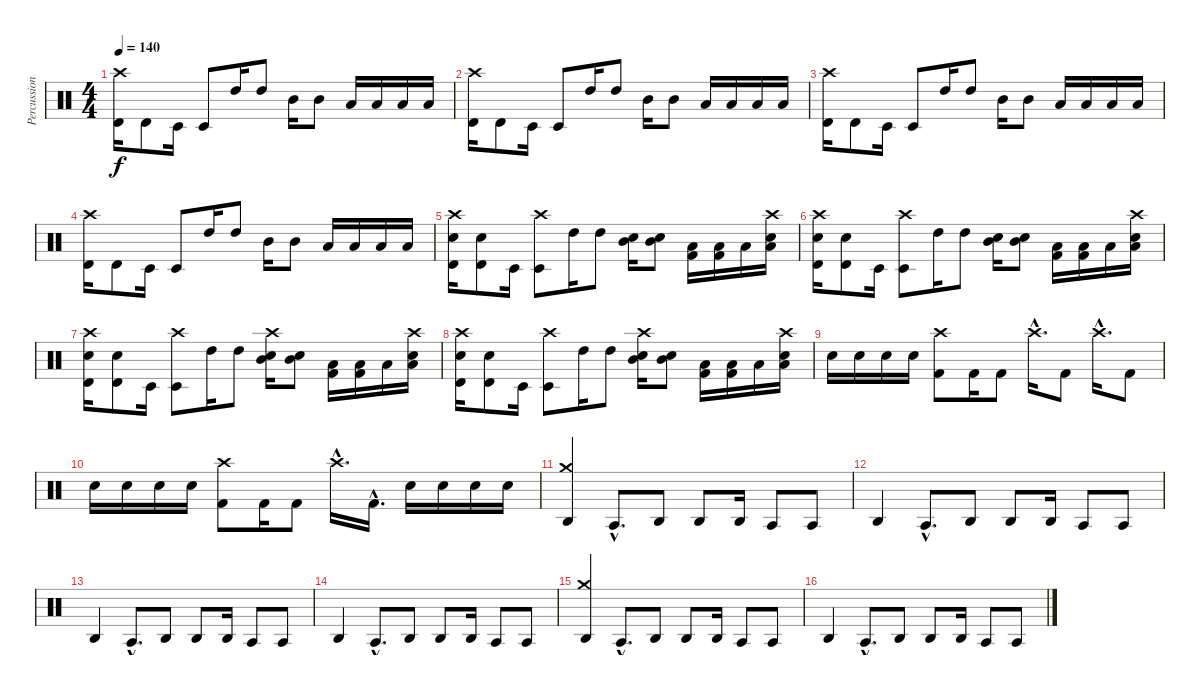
\track ("Percussion" "Percussion") {instrument percussion}
\staff {score}
\articulation defaults
\ts (4 4)
\tempo 140
\clef neutral
\ks c
("Crash high (hit)" "Timbale high (hit)").16{dy f} "Timbale high (hit)".8 "Timbale low (hit)".16 "Timbale low (hit)".8 "High Tom (hit)".16 "High Tom (hit)".8 "Mid Tom (hit)".16 "Mid Tom (hit)".8 "Low Tom (hit)".16 "Low Tom (hit)".16 "Low Tom (hit)".16 "Low Tom (hit)".16 |
("Crash high (hit)" "Timbale high (hit)").16 "Timbale high (hit)".8 "Timbale low (hit)".16 "Timbale low (hit)".8 "High Tom (hit)".16 "High Tom (hit)".8 "Mid Tom (hit)".16 "Mid Tom (hit)".8 "Low Tom (hit)".16 "Low Tom (hit)".16 "Low Tom (hit)".16 "Low Tom (hit)".16 |
("Crash high (hit)" "Timbale high (hit)").16 "Timbale high (hit)".8 "Timbale low (hit)".16 "Timbale low (hit)".8 "High Tom (hit)".16 "High Tom (hit)".8 "Mid Tom (hit)".16 "Mid Tom (hit)".8 "Low Tom (hit)".16 "Low Tom (hit)".16 "Low Tom (hit)".16 "Low Tom (hit)".16 |
("Crash high (hit)" "Timbale high (hit)").16 "Timbale high (hit)".8 "Timbale low (hit)".16 "Timbale low (hit)".8 "High Tom (hit)".16 "High Tom (hit)".8 "Mid Tom (hit)".16 "Mid Tom (hit)".8 "Low Tom (hit)".16 "Low Tom (hit)".16 "Low Tom (hit)".16 "Low Tom (hit)".16 |
("Crash high (hit)" "Timbale high (hit)" "Electric Snare (hit)").16 ("Timbale high (hit)" "Electric Snare (hit)").8 "Timbale low (hit)".16 ("Crash high (hit)" "Timbale low (hit)").8 "High Tom (hit)".16 "High Tom (hit)".8 ("Mid Tom (hit)" "Electric Snare (hit)").16 ("Mid Tom (hit)" "Electric Snare (hit)").8 ("Low Tom (hit)" "Kick (hit) 2").16 ("Low Tom (hit)" "Kick (hit) 2").16 "Low Tom (hit)".16 ("Crash high (hit)" "Low Tom (hit)" "Electric Snare (hit)").16 |
("Crash high (hit)" "Timbale high (hit)" "Electric Snare (hit)").16 ("Timbale high (hit)" "Electric Snare (hit)").8 "Timbale low (hit)".16 ("Crash high (hit)" "Timbale low (hit)").8 "High Tom (hit)".16 "High Tom (hit)".8 ("Mid Tom (hit)" "Electric Snare (hit)").16 ("Mid Tom (hit)" "Electric Snare (hit)").8 ("Low Tom (hit)" "Kick (hit) 2").16 ("Low Tom (hit)" "Kick (hit) 2").16 "Low Tom (hit)".16 ("Crash high (hit)" "Low Tom (hit)" "Electric Snare (hit)").16 |
("Crash high (hit)" "Timbale high (hit)" "Electric Snare (hit)").16 ("Timbale high (hit)" "Electric Snare (hit)").8 "Timbale low (hit)".16 ("Crash high (hit)" "Timbale low (hit)").8 "High Tom (hit)".16 "High Tom (hit)".8 ("Crash high (hit)" "Mid Tom (hit)" "Electric Snare (hit)").16 ("Mid Tom (hit)" "Electric Snare (hit)").8 ("Low Tom (hit)" "Kick (hit) 2").16 ("Low Tom (hit)" "Kick (hit) 2").16 "Low Tom (hit)".16 ("Crash high (hit)" "Low Tom (hit)" "Electric Snare (hit)").16 |
("Crash high (hit)" "Timbale high (hit)" "Electric Snare (hit)").16 ("Timbale high (hit)" "Electric Snare (hit)").8 "Timbale low (hit)".16 ("Crash high (hit)" "Timbale low (hit)").8 "High Tom (hit)".16 "High Tom (hit)".8 ("Crash high (hit)" "Mid Tom (hit)" "Electric Snare (hit)").16 ("Mid Tom (hit)" "Electric Snare (hit)").8 ("Low Tom (hit)" "Kick (hit) 2").16 ("Low Tom (hit)" "Kick (hit) 2").16 "Low Tom (hit)".16 ("Crash high (hit)" "Low Tom (hit)" "Electric Snare (hit)").16 |
"Electric Snare (hit)".16 "Electric Snare (hit)".16 "Electric Snare (hit)".16 "Electric Snare (hit)".16 ("Crash high (hit)" "Kick (hit) 2").8 "Kick (hit) 2".16 "Kick (hit) 2".8 "Crash high (hit)"{hac}.16{d} "Kick (hit) 2".8 "Crash high (hit)"{hac}.16{d} "Kick (hit) 2".8 |
"Electric Snare (hit)".16 "Electric Snare (hit)".16 "Electric Snare (hit)".16 "Electric Snare (hit)".16 ("Crash high (hit)" "Kick (hit) 2").8 "Kick (hit) 2".16 "Kick (hit) 2".8 "Crash high (hit)"{hac}.16{d} "Kick (hit) 2"{hac}.16{d} "Electric Snare (hit)".16 "Electric Snare (hit)".16 "Electric Snare (hit)".16 "Electric Snare (hit)".16 |
("Crash medium (hit)" "Agogo high (hit)").4 "Agogo tow (hit)"{hac}.8{d} "Agogo high (hit)".8 "Agogo high (hit)".8 "Agogo high (hit)".16 "Agogo tow (hit)".8 "Agogo tow (hit)".8 |
"Agogo high (hit)".4 "Agogo tow (hit)"{hac}.8{d} "Agogo high (hit)".8 "Agogo high (hit)".8 "Agogo high (hit)".16 "Agogo tow (hit)".8 "Agogo tow (hit)".8 |
"Agogo high (hit)".4 "Agogo tow (hit)"{hac}.8{d} "Agogo high (hit)".8 "Agogo high (hit)".8 "Agogo high (hit)".16 "Agogo tow (hit)".8 "Agogo tow (hit)".8 |
"Agogo high (hit)".4 "Agogo tow (hit)"{hac}.8{d} "Agogo high (hit)".8 "Agogo high (hit)".8 "Agogo high (hit)".16 "Agogo tow (hit)".8 "Agogo tow (hit)".8 |
("Crash medium (hit)" "Agogo high (hit)").4 "Agogo tow (hit)"{hac}.8{d} "Agogo high (hit)".8 "Agogo high (hit)".8 "Agogo high (hit)".16 "Agogo tow (hit)".8 "Agogo tow (hit)".8 |
"Agogo high (hit)".4 "Agogo tow (hit)"{hac}.8{d} "Agogo high (hit)".8 "Agogo high (hit)".8 "Agogo high (hit)".16 "Agogo tow (hit)".8 "Agogo tow (hit)".8
